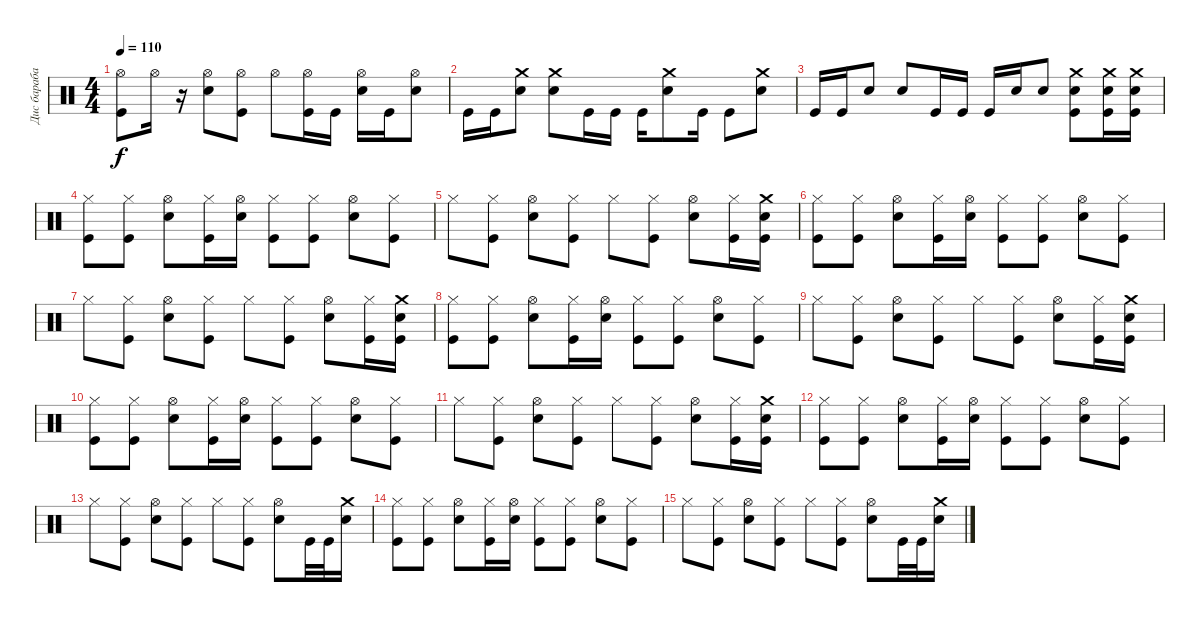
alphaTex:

\track ("Дис барабаны" "Дис бараба") {instrument percussion}
\staff {score}
\articulation defaults
\ts (4 4)
\tempo 110
\clef neutral
\ks c
("Hi-Hat (open)" "Kick (hit)").8{dy f} "Hi-Hat (open)".16 r.16 ("Hi-Hat (open)" "Electric Snare (hit)").8 ("Hi-Hat (open)" "Kick (hit)").8 "Hi-Hat (open)".8 ("Hi-Hat (open)" "Kick (hit)").16 "Kick (hit)".16 ("Hi-Hat (open)" "Electric Snare (hit)").16 "Kick (hit)".16 ("Hi-Hat (open)" "Electric Snare (hit)").8 |
"Kick (hit)".16 "Kick (hit)".16 ("Crash medium (hit)" "Electric Snare (hit)").8 ("Crash medium (hit)" "Electric Snare (hit)").8 "Kick (hit)".16 "Kick (hit)".16 "Kick (hit)".16 ("Crash medium (hit)" "Electric Snare (hit)").8 "Kick (hit)".16 "Kick (hit)".8 ("Crash medium (hit)" "Electric Snare (hit)").8 |
"Kick (hit)".16 "Kick (hit)".16 "Electric Snare (hit)".8 "Electric Snare (hit)".8 "Kick (hit)".16 "Kick (hit)".16 "Kick (hit)".16 "Electric Snare (hit)".16 "Electric Snare (hit)".8 ("Crash medium (hit)" "Electric Snare (hit)" "Kick (hit)").8 ("Crash medium (hit)" "Electric Snare (hit)" "Kick (hit)").16 ("Crash medium (hit)" "Electric Snare (hit)" "Kick (hit)").16 |
("Hi-Hat (closed)" "Kick (hit)").8 ("Hi-Hat (closed)" "Kick (hit)").8 ("Hi-Hat (open)" "Electric Snare (hit)").8 ("Hi-Hat (closed)" "Kick (hit)").16 ("Hi-Hat (open)" "Electric Snare (hit)").16 ("Hi-Hat (closed)" "Kick (hit)").8 ("Hi-Hat (closed)" "Kick (hit)").8 ("Hi-Hat (open)" "Electric Snare (hit)").8 ("Hi-Hat (closed)" "Kick (hit)").8 |
"Hi-Hat (closed)".8 ("Hi-Hat (closed)" "Kick (hit)").8 ("Hi-Hat (open)" "Electric Snare (hit)").8 ("Hi-Hat (closed)" "Kick (hit)").8 "Hi-Hat (closed)".8 ("Hi-Hat (closed)" "Kick (hit)").8 ("Hi-Hat (open)" "Electric Snare (hit)").8 ("Hi-Hat (closed)" "Kick (hit)").16 ("Crash medium (hit)" "Electric Snare (hit)" "Kick (hit)").16 |
("Hi-Hat (closed)" "Kick (hit)").8 ("Hi-Hat (closed)" "Kick (hit)").8 ("Hi-Hat (open)" "Electric Snare (hit)").8 ("Hi-Hat (closed)" "Kick (hit)").16 ("Hi-Hat (open)" "Electric Snare (hit)").16 ("Hi-Hat (closed)" "Kick (hit)").8 ("Hi-Hat (closed)" "Kick (hit)").8 ("Hi-Hat (open)" "Electric Snare (hit)").8 ("Hi-Hat (closed)" "Kick (hit)").8 |
"Hi-Hat (closed)".8 ("Hi-Hat (closed)" "Kick (hit)").8 ("Hi-Hat (open)" "Electric Snare (hit)").8 ("Hi-Hat (closed)" "Kick (hit)").8 "Hi-Hat (closed)".8 ("Hi-Hat (closed)" "Kick (hit)").8 ("Hi-Hat (open)" "Electric Snare (hit)").8 ("Hi-Hat (closed)" "Kick (hit)").16 ("Crash medium (hit)" "Electric Snare (hit)" "Kick (hit)").16 |
("Hi-Hat (closed)" "Kick (hit)").8 ("Hi-Hat (closed)" "Kick (hit)").8 ("Hi-Hat (open)" "Electric Snare (hit)").8 ("Hi-Hat (closed)" "Kick (hit)").16 ("Hi-Hat (open)" "Electric Snare (hit)").16 ("Hi-Hat (closed)" "Kick (hit)").8 ("Hi-Hat (closed)" "Kick (hit)").8 ("Hi-Hat (open)" "Electric Snare (hit)").8 ("Hi-Hat (closed)" "Kick (hit)").8 |
"Hi-Hat (closed)".8 ("Hi-Hat (closed)" "Kick (hit)").8 ("Hi-Hat (open)" "Electric Snare (hit)").8 ("Hi-Hat (closed)" "Kick (hit)").8 "Hi-Hat (closed)".8 ("Hi-Hat (closed)" "Kick (hit)").8 ("Hi-Hat (open)" "Electric Snare (hit)").8 ("Hi-Hat (closed)" "Kick (hit)").16 ("Crash medium (hit)" "Electric Snare (hit)" "Kick (hit)").16 |
("Hi-Hat (closed)" "Kick (hit)").8 ("Hi-Hat (closed)" "Kick (hit)").8 ("Hi-Hat (open)" "Electric Snare (hit)").8 ("Hi-Hat (closed)" "Kick (hit)").16 ("Hi-Hat (open)" "Electric Snare (hit)").16 ("Hi-Hat (closed)" "Kick (hit)").8 ("Hi-Hat (closed)" "Kick (hit)").8 ("Hi-Hat (open)" "Electric Snare (hit)").8 ("Hi-Hat (closed)" "Kick (hit)").8 |
"Hi-Hat (closed)".8 ("Hi-Hat (closed)" "Kick (hit)").8 ("Hi-Hat (open)" "Electric Snare (hit)").8 ("Hi-Hat (closed)" "Kick (hit)").8 "Hi-Hat (closed)".8 ("Hi-Hat (closed)" "Kick (hit)").8 ("Hi-Hat (open)" "Electric Snare (hit)").8 ("Hi-Hat (closed)" "Kick (hit)").16 ("Crash medium (hit)" "Electric Snare (hit)" "Kick (hit)").16 |
("Hi-Hat (closed)" "Kick (hit)").8 ("Hi-Hat (closed)" "Kick (hit)").8 ("Hi-Hat (open)" "Electric Snare (hit)").8 ("Hi-Hat (closed)" "Kick (hit)").16 ("Hi-Hat (open)" "Electric Snare (hit)").16 ("Hi-Hat (closed)" "Kick (hit)").8 ("Hi-Hat (closed)" "Kick (hit)").8 ("Hi-Hat (open)" "Electric Snare (hit)").8 ("Hi-Hat (closed)" "Kick (hit)").8 |
"Hi-Hat (closed)".8 ("Hi-Hat (closed)" "Kick (hit)").8 ("Hi-Hat (open)" "Electric Snare (hit)").8 ("Hi-Hat (closed)" "Kick (hit)").8 "Hi-Hat (closed)".8 ("Hi-Hat (closed)" "Kick (hit)").8 ("Hi-Hat (open)" "Electric Snare (hit)").8 "Kick (hit)".32 "Kick (hit)".32 ("Crash medium (hit)" "Electric Snare (hit)").16 |
("Hi-Hat (closed)" "Kick (hit)").8 ("Hi-Hat (closed)" "Kick (hit)").8 ("Hi-Hat (open)" "Electric Snare (hit)").8 ("Hi-Hat (closed)" "Kick (hit)").16 ("Hi-Hat (open)" "Electric Snare (hit)").16 ("Hi-Hat (closed)" "Kick (hit)").8 ("Hi-Hat (closed)" "Kick (hit)").8 ("Hi-Hat (open)" "Electric Snare (hit)").8 ("Hi-Hat (closed)" "Kick (hit)").8 |
"Hi-Hat (closed)".8 ("Hi-Hat (closed)" "Kick (hit)").8 ("Hi-Hat (open)" "Electric Snare (hit)").8 ("Hi-Hat (closed)" "Kick (hit)").8 "Hi-Hat (closed)".8 ("Hi-Hat (closed)" "Kick (hit)").8 ("Hi-Hat (open)" "Electric Snare (hit)").8 "Kick (hit)".32 "Kick (hit)".32 ("Crash medium (hit)" "Electric Snare (hit)").16
